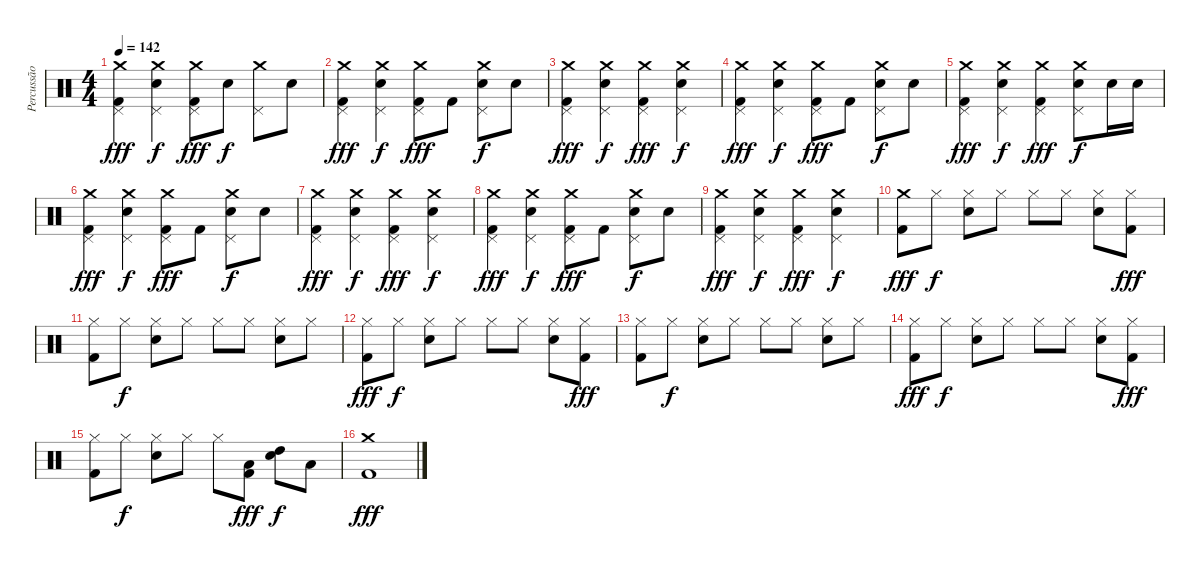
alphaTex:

\track ("Percussão" "Percussão") {instrument percussion}
\staff {score}
\articulation defaults
\ts (4 4)
\tempo 142
\clef neutral
\ks c
("Crash medium (hit)" "Pedal Hi-Hat (hit)" "Kick (hit) 2").4{dy fff} ("Crash medium (hit)" "Pedal Hi-Hat (hit)" "Electric Snare (hit)").4{dy f} ("Crash medium (hit)" "Pedal Hi-Hat (hit)" "Kick (hit) 2").8{dy fff} "Electric Snare (hit)".8{dy f} ("Crash medium (hit)" "Pedal Hi-Hat (hit)").8 "Electric Snare (hit)".8 |
("Crash medium (hit)" "Pedal Hi-Hat (hit)" "Kick (hit) 2").4{dy fff} ("Crash medium (hit)" "Pedal Hi-Hat (hit)" "Electric Snare (hit)").4{dy f} ("Crash medium (hit)" "Pedal Hi-Hat (hit)" "Kick (hit) 2").8{dy fff} "Kick (hit) 2".8 ("Crash medium (hit)" "Pedal Hi-Hat (hit)" "Electric Snare (hit)").8{dy f} "Electric Snare (hit)".8 |
("Crash medium (hit)" "Pedal Hi-Hat (hit)" "Kick (hit) 2").4{dy fff} ("Crash medium (hit)" "Pedal Hi-Hat (hit)" "Electric Snare (hit)").4{dy f} ("Crash medium (hit)" "Pedal Hi-Hat (hit)" "Kick (hit) 2").4{dy fff} ("Crash medium (hit)" "Pedal Hi-Hat (hit)" "Electric Snare (hit)").4{dy f} |
("Crash medium (hit)" "Pedal Hi-Hat (hit)" "Kick (hit) 2").4{dy fff} ("Crash medium (hit)" "Pedal Hi-Hat (hit)" "Electric Snare (hit)").4{dy f} ("Crash medium (hit)" "Pedal Hi-Hat (hit)" "Kick (hit) 2").8{dy fff} "Kick (hit) 2".8 ("Crash medium (hit)" "Pedal Hi-Hat (hit)" "Electric Snare (hit)").8{dy f} "Electric Snare (hit)".8 |
("Crash medium (hit)" "Pedal Hi-Hat (hit)" "Kick (hit) 2").4{dy fff} ("Crash medium (hit)" "Pedal Hi-Hat (hit)" "Electric Snare (hit)").4{dy f} ("Crash medium (hit)" "Pedal Hi-Hat (hit)" "Kick (hit) 2").4{dy fff} ("Crash medium (hit)" "Pedal Hi-Hat (hit)" "Electric Snare (hit)").8{dy f} "Electric Snare (hit)".16 "Electric Snare (hit)".16 |
("Crash medium (hit)" "Pedal Hi-Hat (hit)" "Kick (hit) 2").4{dy fff} ("Crash medium (hit)" "Pedal Hi-Hat (hit)" "Electric Snare (hit)").4{dy f} ("Crash medium (hit)" "Pedal Hi-Hat (hit)" "Kick (hit) 2").8{dy fff} "Kick (hit) 2".8 ("Crash medium (hit)" "Pedal Hi-Hat (hit)" "Electric Snare (hit)").8{dy f} "Electric Snare (hit)".8 |
("Crash medium (hit)" "Pedal Hi-Hat (hit)" "Kick (hit) 2").4{dy fff} ("Crash medium (hit)" "Pedal Hi-Hat (hit)" "Electric Snare (hit)").4{dy f} ("Crash medium (hit)" "Pedal Hi-Hat (hit)" "Kick (hit) 2").4{dy fff} ("Crash medium (hit)" "Pedal Hi-Hat (hit)" "Electric Snare (hit)").4{dy f} |
("Crash medium (hit)" "Pedal Hi-Hat (hit)" "Kick (hit) 2").4{dy fff} ("Crash medium (hit)" "Pedal Hi-Hat (hit)" "Electric Snare (hit)").4{dy f} ("Crash medium (hit)" "Pedal Hi-Hat (hit)" "Kick (hit) 2").8{dy fff} "Kick (hit) 2".8 ("Crash medium (hit)" "Pedal Hi-Hat (hit)" "Electric Snare (hit)").8{dy f} "Electric Snare (hit)".8 |
("Crash medium (hit)" "Pedal Hi-Hat (hit)" "Kick (hit) 2").4{dy fff} ("Crash medium (hit)" "Pedal Hi-Hat (hit)" "Electric Snare (hit)").4{dy f} ("Crash medium (hit)" "Pedal Hi-Hat (hit)" "Kick (hit) 2").4{dy fff} ("Crash medium (hit)" "Pedal Hi-Hat (hit)" "Electric Snare (hit)").4{dy f} |
("Crash medium (hit)" "Kick (hit) 2").8{dy fff} "Hi-Hat (closed)".8{dy f} ("Hi-Hat (closed)" "Electric Snare (hit)").8 "Hi-Hat (closed)".8 "Hi-Hat (closed)".8 "Hi-Hat (closed)".8 ("Hi-Hat (closed)" "Electric Snare (hit)").8 ("Hi-Hat (closed)" "Kick (hit) 2").8{dy fff} |
("Hi-Hat (closed)" "Kick (hit) 2").8 "Hi-Hat (closed)".8{dy f} ("Hi-Hat (closed)" "Electric Snare (hit)").8 "Hi-Hat (closed)".8 "Hi-Hat (closed)".8 "Hi-Hat (closed)".8 ("Hi-Hat (closed)" "Electric Snare (hit)").8 "Hi-Hat (closed)".8 |
("Hi-Hat (closed)" "Kick (hit) 2").8{dy fff} "Hi-Hat (closed)".8{dy f} ("Hi-Hat (closed)" "Electric Snare (hit)").8 "Hi-Hat (closed)".8 "Hi-Hat (closed)".8 "Hi-Hat (closed)".8 ("Hi-Hat (closed)" "Electric Snare (hit)").8 ("Hi-Hat (closed)" "Kick (hit) 2").8{dy fff} |
("Hi-Hat (closed)" "Kick (hit) 2").8 "Hi-Hat (closed)".8{dy f} ("Hi-Hat (closed)" "Electric Snare (hit)").8 "Hi-Hat (closed)".8 "Hi-Hat (closed)".8 "Hi-Hat (closed)".8 ("Hi-Hat (closed)" "Electric Snare (hit)").8 "Hi-Hat (closed)".8 |
("Hi-Hat (closed)" "Kick (hit) 2").8{dy fff} "Hi-Hat (closed)".8{dy f} ("Hi-Hat (closed)" "Electric Snare (hit)").8 "Hi-Hat (closed)".8 "Hi-Hat (closed)".8 "Hi-Hat (closed)".8 ("Hi-Hat (closed)" "Electric Snare (hit)").8 ("Hi-Hat (closed)" "Kick (hit) 2").8{dy fff} |
("Hi-Hat (closed)" "Kick (hit) 2").8 "Hi-Hat (closed)".8{dy f} ("Hi-Hat (closed)" "Electric Snare (hit)").8 "Hi-Hat (closed)".8 "Hi-Hat (closed)".8 ("Low Tom (hit)" "Kick (hit) 2").8{dy fff} ("High Tom (hit)" "Electric Snare (hit)").8{dy f} "Low Tom (hit)".8 |
("Crash medium (hit)" "Kick (hit) 2").1{dy fff}
